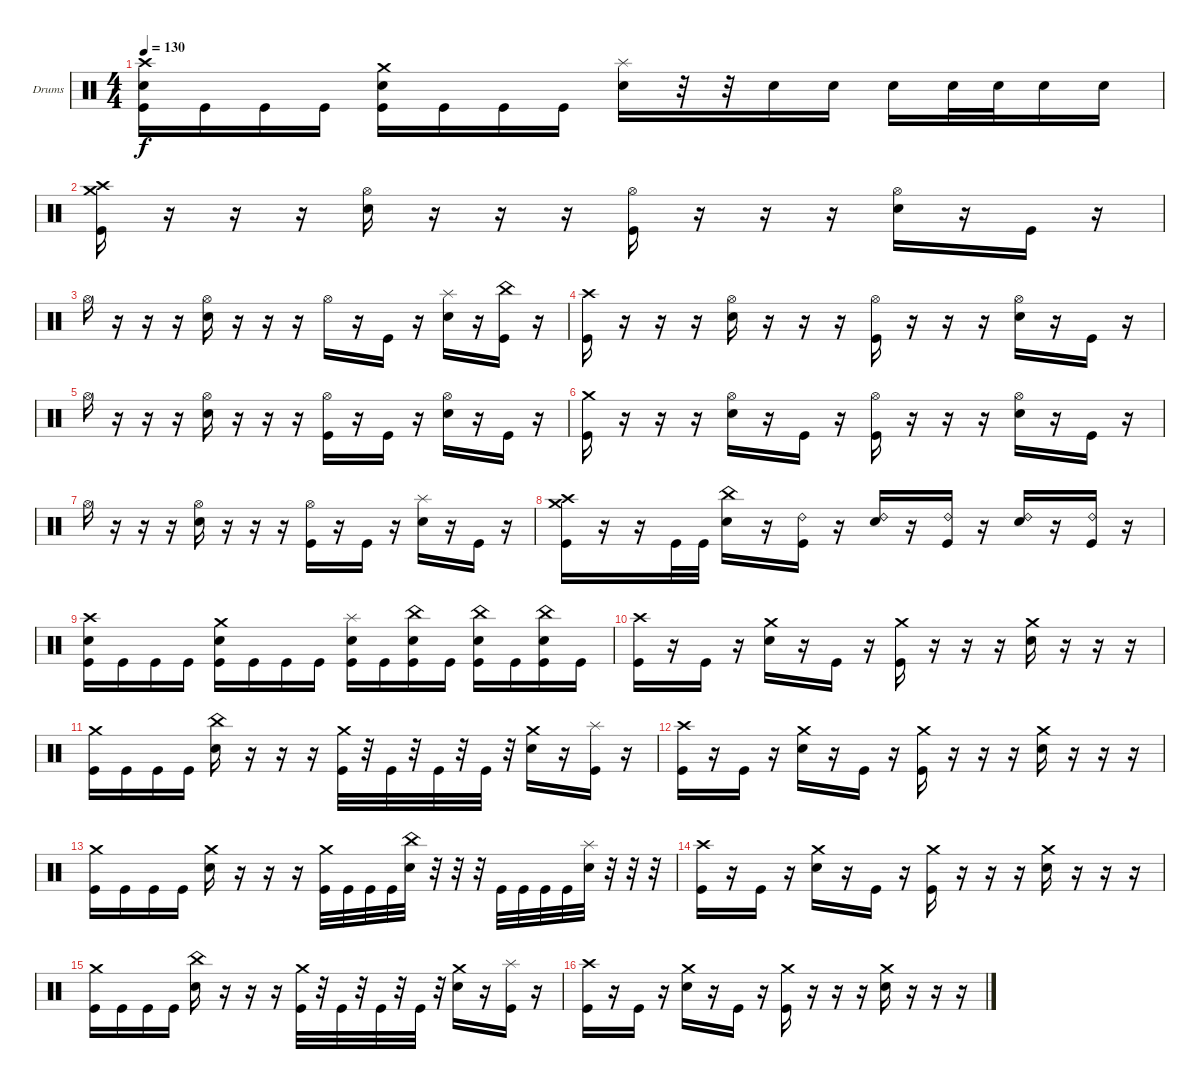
\defaultSystemsLayout 4
\bracketExtendMode groupsimilarinstruments
\firstSystemTrackNameOrientation horizontal
\otherSystemsTrackNameOrientation horizontal
\track ("Drumkit" "Drums") {instrument percussion}
\staff {score}
\articulation defaults
\ts (4 4)
\tempo 130
\clef neutral
\scale
0.333333
\ks c
("Kick (hit)" "Snare (hit) 2" "Crash high (hit)").16{dy f} "Kick (hit)".16 "Kick (hit)".16 "Kick (hit)".16 ("Kick (hit)" "Snare (hit) 2" "Crash medium (hit)").16 "Kick (hit)".16 "Kick (hit)".16 "Kick (hit)".16 ("Snare (hit) 2" "Splash (hit)").16 r.32 r.32 "Snare (hit) 2".16 "Snare (hit) 2".16 "Snare (hit) 2".16 "Snare (hit) 2".32 "Snare (hit) 2".32 "Snare (hit) 2".16 "Snare (hit) 2".16 |
\scale
0.333333 ("Kick (hit)" "Crash medium (hit)" "Crash high (hit)").16 r.16 r.16 r.16 ("Snare (hit) 2" "Hi-Hat (open)").16 r.16 r.16 r.16 ("Kick (hit)" "Hi-Hat (open)").16 r.16 r.16 r.16 ("Snare (hit) 2" "Hi-Hat (open)").16 r.16 "Kick (hit)".16 r.16 |
\scale
0.333333 "Hi-Hat (open)".16 r.16 r.16 r.16 ("Snare (hit) 2" "Hi-Hat (open)").16 r.16 r.16 r.16 "Hi-Hat (open)".16 r.16 "Kick (hit)".16 r.16 ("Snare (hit) 2" "Splash (hit)").16 r.16 ("Kick (hit)" "China (hit)").16 r.16 |
\scale
0.333333 ("Kick (hit)" "Crash high (hit)").16 r.16 r.16 r.16 ("Snare (hit) 2" "Hi-Hat (open)").16 r.16 r.16 r.16 ("Kick (hit)" "Hi-Hat (open)").16 r.16 r.16 r.16 ("Snare (hit) 2" "Hi-Hat (open)").16 r.16 "Kick (hit)".16 r.16 |
\scale
0.333333 "Hi-Hat (open)".16 r.16 r.16 r.16 ("Snare (hit) 2" "Hi-Hat (open)").16 r.16 r.16 r.16 ("Kick (hit)" "Hi-Hat (open)").16 r.16 "Kick (hit)".16 r.16 ("Snare (hit) 2" "Hi-Hat (open)").16 r.16 "Kick (hit)".16 r.16 |
\scale
0.333333 ("Kick (hit)" "Crash medium (hit)").16 r.16 r.16 r.16 ("Snare (hit) 2" "Hi-Hat (open)").16 r.16 "Kick (hit)".16 r.16 ("Kick (hit)" "Hi-Hat (open)").16 r.16 r.16 r.16 ("Snare (hit) 2" "Hi-Hat (open)").16 r.16 "Kick (hit)".16 r.16 |
\scale
0.333333 "Hi-Hat (open)".16 r.16 r.16 r.16 ("Snare (hit) 2" "Hi-Hat (open)").16 r.16 r.16 r.16 ("Kick (hit)" "Hi-Hat (open)").16 r.16 "Kick (hit)".16 r.16 ("Snare (hit) 2" "Splash (hit)").16 r.16 "Kick (hit)".16 r.16 |
\scale
0.333333 ("Kick (hit)" "Crash medium (hit)" "Crash high (hit)").16 r.16 r.16 "Kick (hit)".32 "Kick (hit)".32 ("Snare (hit) 2" "China (hit)").16 r.16 ("Kick (hit)" "Ride (bell) 2").16 r.16 ("Snare (hit) 2" "Ride (bell) 2").16 r.16 ("Kick (hit)" "Ride (bell) 2").16 r.16 ("Snare (hit) 2" "Ride (bell) 2").16 r.16 ("Kick (hit)" "Ride (bell) 2").16 r.16 |
\scale
0.333333 ("Kick (hit)" "Snare (hit) 2" "Crash high (hit)").16 "Kick (hit)".16 "Kick (hit)".16 "Kick (hit)".16 ("Kick (hit)" "Snare (hit) 2" "Crash medium (hit)").16 "Kick (hit)".16 "Kick (hit)".16 "Kick (hit)".16 ("Kick (hit)" "Snare (hit) 2" "Splash (hit)").16 "Kick (hit)".16 ("Kick (hit)" "Snare (hit) 2" "China (hit)").16 "Kick (hit)".16 ("Kick (hit)" "Snare (hit) 2" "China (hit)").16 "Kick (hit)".16 ("Kick (hit)" "Snare (hit) 2" "China (hit)").16 "Kick (hit)".16 |
\scale
0.333333 ("Kick (hit)" "Crash high (hit)").16 r.16 "Kick (hit)".16 r.16 ("Snare (hit) 2" "Crash medium (hit)").16 r.16 "Kick (hit)".16 r.16 ("Kick (hit)" "Crash medium (hit)").16 r.16 r.16 r.16 ("Snare (hit) 2" "Crash medium (hit)").16 r.16 r.16 r.16 |
\scale
0.333333 ("Kick (hit)" "Crash medium (hit)").16 "Kick (hit)".16 "Kick (hit)".16 "Kick (hit)".16 ("Snare (hit) 2" "China (hit)").16 r.16 r.16 r.16 ("Kick (hit)" "Crash medium (hit)").32 r.32 "Kick (hit)".32 r.32 "Kick (hit)".32 r.32 "Kick (hit)".32 r.32 ("Snare (hit) 2" "Crash medium (hit)").16 r.16 ("Kick (hit)" "Splash (hit)").16 r.16 |
\scale
0.333333 ("Kick (hit)" "Crash high (hit)").16 r.16 "Kick (hit)".16 r.16 ("Snare (hit) 2" "Crash medium (hit)").16 r.16 "Kick (hit)".16 r.16 ("Kick (hit)" "Crash medium (hit)").16 r.16 r.16 r.16 ("Snare (hit) 2" "Crash medium (hit)").16 r.16 r.16 r.16 |
\scale
0.333333 ("Kick (hit)" "Crash medium (hit)").16 "Kick (hit)".16 "Kick (hit)".16 "Kick (hit)".16 ("Snare (hit) 2" "Crash medium (hit)").16 r.16 r.16 r.16 ("Kick (hit)" "Crash medium (hit)").32 "Kick (hit)".32 "Kick (hit)".32 "Kick (hit)".32 ("Snare (hit) 2" "China (hit)").32 r.32 r.32 r.32 "Kick (hit)".32 "Kick (hit)".32 "Kick (hit)".32 "Kick (hit)".32 ("Snare (hit) 2" "Splash (hit)").32 r.32 r.32 r.32 |
\scale
0.333333 ("Kick (hit)" "Crash high (hit)").16 r.16 "Kick (hit)".16 r.16 ("Snare (hit) 2" "Crash medium (hit)").16 r.16 "Kick (hit)".16 r.16 ("Kick (hit)" "Crash medium (hit)").16 r.16 r.16 r.16 ("Snare (hit) 2" "Crash medium (hit)").16 r.16 r.16 r.16 |
\scale
0.333333 ("Kick (hit)" "Crash medium (hit)").16 "Kick (hit)".16 "Kick (hit)".16 "Kick (hit)".16 ("Snare (hit) 2" "China (hit)").16 r.16 r.16 r.16 ("Kick (hit)" "Crash medium (hit)").32 r.32 "Kick (hit)".32 r.32 "Kick (hit)".32 r.32 "Kick (hit)".32 r.32 ("Snare (hit) 2" "Crash medium (hit)").16 r.16 ("Kick (hit)" "Splash (hit)").16 r.16 |
\scale
0.333333 ("Kick (hit)" "Crash high (hit)").16 r.16 "Kick (hit)".16 r.16 ("Snare (hit) 2" "Crash medium (hit)").16 r.16 "Kick (hit)".16 r.16 ("Kick (hit)" "Crash medium (hit)").16 r.16 r.16 r.16 ("Snare (hit) 2" "Crash medium (hit)").16 r.16 r.16 r.16
